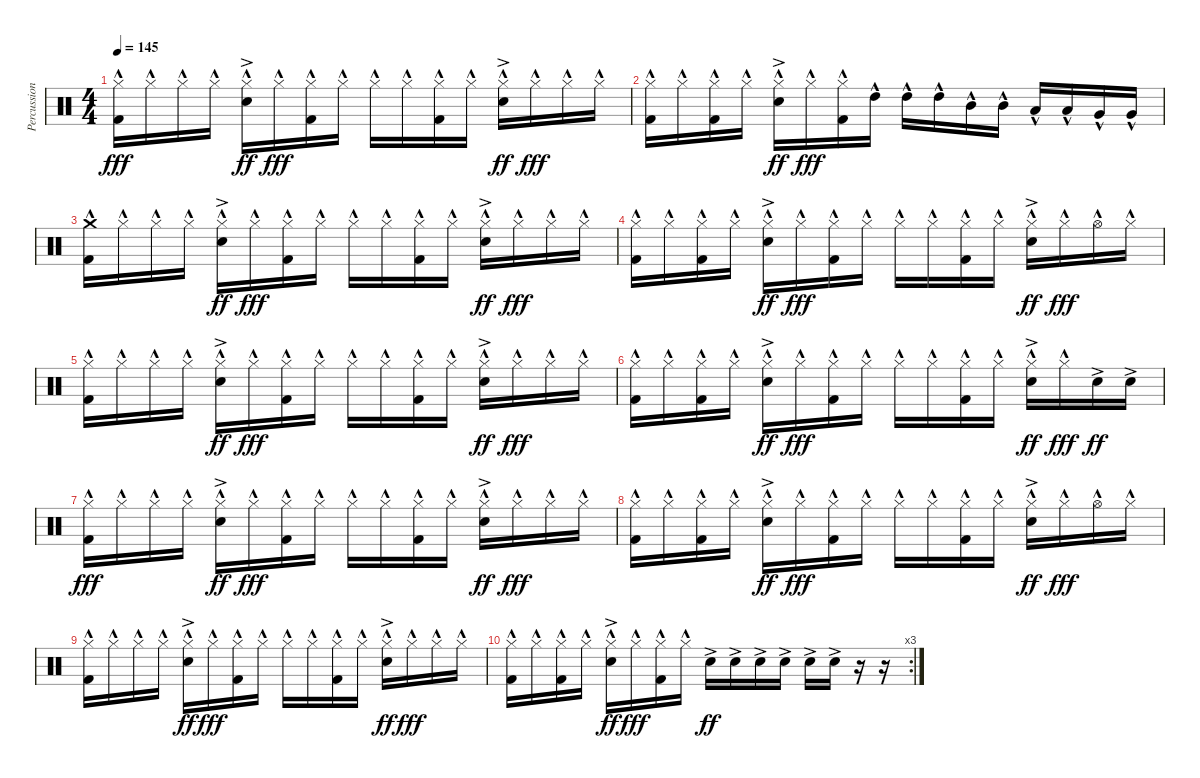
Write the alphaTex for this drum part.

\track ("Percussion" "Percussion") {instrument percussion bank 2}
\staff {score}
\articulation defaults
\ts (4 4)
\tempo 145
\clef neutral
\ks c
("Hi-Hat (closed)"{hac} "Kick (hit) 2"{hac}).16{dy fff} "Hi-Hat (closed)"{hac}.16 "Hi-Hat (closed)"{hac}.16 "Hi-Hat (closed)"{hac}.16 ("Hi-Hat (closed)"{hac} "Snare (hit) 2"{ac}).16{dy ff} "Hi-Hat (closed)"{hac}.16{dy fff} ("Hi-Hat (closed)"{hac} "Kick (hit) 2"{hac}).16 "Hi-Hat (closed)"{hac}.16 "Hi-Hat (closed)"{hac}.16 "Hi-Hat (closed)"{hac}.16 ("Hi-Hat (closed)"{hac} "Kick (hit) 2"{hac}).16 "Hi-Hat (closed)"{hac}.16 ("Hi-Hat (closed)"{hac} "Snare (hit) 2"{ac}).16{dy ff} "Hi-Hat (closed)"{hac}.16{dy fff} "Hi-Hat (closed)"{hac}.16 "Hi-Hat (closed)"{hac}.16 |
("Hi-Hat (closed)"{hac} "Kick (hit) 2"{hac}).16 "Hi-Hat (closed)"{hac}.16 ("Hi-Hat (closed)"{hac} "Kick (hit) 2"{hac}).16 "Hi-Hat (closed)"{hac}.16 ("Hi-Hat (closed)"{hac} "Snare (hit) 2"{ac}).16{dy ff} "Hi-Hat (closed)"{hac}.16{dy fff} ("Hi-Hat (closed)"{hac} "Kick (hit) 2"{hac}).16 "High Tom (hit)"{hac}.16 "High Tom (hit)"{hac}.16 "High Tom (hit)"{hac}.16 "Mid Tom (hit)"{hac}.16 "Mid Tom (hit)"{hac}.16 "Low Tom (hit)"{hac}.16 "Low Tom (hit)"{hac}.16 "Very Low Tom (hit)"{hac}.16 "Very Low Tom (hit)"{hac}.16 |
("Crash medium (hit)"{hac} "Kick (hit) 2"{hac}).16 "Hi-Hat (closed)"{hac}.16 "Hi-Hat (closed)"{hac}.16 "Hi-Hat (closed)"{hac}.16 ("Hi-Hat (closed)"{hac} "Snare (hit) 2"{ac}).16{dy ff} "Hi-Hat (closed)"{hac}.16{dy fff} ("Hi-Hat (closed)"{hac} "Kick (hit) 2"{hac}).16 "Hi-Hat (closed)"{hac}.16 "Hi-Hat (closed)"{hac}.16 "Hi-Hat (closed)"{hac}.16 ("Hi-Hat (closed)"{hac} "Kick (hit) 2"{hac}).16 "Hi-Hat (closed)"{hac}.16 ("Hi-Hat (closed)"{hac} "Snare (hit) 2"{ac}).16{dy ff} "Hi-Hat (closed)"{hac}.16{dy fff} "Hi-Hat (closed)"{hac}.16 "Hi-Hat (closed)"{hac}.16 |
("Hi-Hat (closed)"{hac} "Kick (hit) 2"{hac}).16 "Hi-Hat (closed)"{hac}.16 ("Hi-Hat (closed)"{hac} "Kick (hit) 2"{hac}).16 "Hi-Hat (closed)"{hac}.16 ("Hi-Hat (closed)"{hac} "Snare (hit) 2"{ac}).16{dy ff} "Hi-Hat (closed)"{hac}.16{dy fff} ("Hi-Hat (closed)"{hac} "Kick (hit) 2"{hac}).16 "Hi-Hat (closed)"{hac}.16 "Hi-Hat (closed)"{hac}.16 "Hi-Hat (closed)"{hac}.16 ("Hi-Hat (closed)"{hac} "Kick (hit) 2"{hac}).16 "Hi-Hat (closed)"{hac}.16 ("Hi-Hat (closed)"{hac} "Snare (hit) 2"{ac}).16{dy ff} "Hi-Hat (closed)"{hac}.16{dy fff} "Hi-Hat (open)"{hac}.16 "Hi-Hat (closed)"{hac}.16 |
("Hi-Hat (closed)"{hac} "Kick (hit) 2"{hac}).16 "Hi-Hat (closed)"{hac}.16 "Hi-Hat (closed)"{hac}.16 "Hi-Hat (closed)"{hac}.16 ("Hi-Hat (closed)"{hac} "Snare (hit) 2"{ac}).16{dy ff} "Hi-Hat (closed)"{hac}.16{dy fff} ("Hi-Hat (closed)"{hac} "Kick (hit) 2"{hac}).16 "Hi-Hat (closed)"{hac}.16 "Hi-Hat (closed)"{hac}.16 "Hi-Hat (closed)"{hac}.16 ("Hi-Hat (closed)"{hac} "Kick (hit) 2"{hac}).16 "Hi-Hat (closed)"{hac}.16 ("Hi-Hat (closed)"{hac} "Snare (hit) 2"{ac}).16{dy ff} "Hi-Hat (closed)"{hac}.16{dy fff} "Hi-Hat (closed)"{hac}.16 "Hi-Hat (closed)"{hac}.16 |
("Hi-Hat (closed)"{hac} "Kick (hit) 2"{hac}).16 "Hi-Hat (closed)"{hac}.16 ("Hi-Hat (closed)"{hac} "Kick (hit) 2"{hac}).16 "Hi-Hat (closed)"{hac}.16 ("Hi-Hat (closed)"{hac} "Snare (hit) 2"{ac}).16{dy ff} "Hi-Hat (closed)"{hac}.16{dy fff} ("Hi-Hat (closed)"{hac} "Kick (hit) 2"{hac}).16 "Hi-Hat (closed)"{hac}.16 "Hi-Hat (closed)"{hac}.16 "Hi-Hat (closed)"{hac}.16 ("Hi-Hat (closed)"{hac} "Kick (hit) 2"{hac}).16 "Hi-Hat (closed)"{hac}.16 ("Hi-Hat (closed)"{hac} "Snare (hit) 2"{ac}).16{dy ff} "Hi-Hat (closed)"{hac}.16{dy fff} "Snare (hit) 2"{ac}.16{dy ff} "Snare (hit) 2"{ac}.16 |
("Hi-Hat (closed)"{hac} "Kick (hit) 2"{hac}).16{dy fff} "Hi-Hat (closed)"{hac}.16 "Hi-Hat (closed)"{hac}.16 "Hi-Hat (closed)"{hac}.16 ("Hi-Hat (closed)"{hac} "Snare (hit) 2"{ac}).16{dy ff} "Hi-Hat (closed)"{hac}.16{dy fff} ("Hi-Hat (closed)"{hac} "Kick (hit) 2"{hac}).16 "Hi-Hat (closed)"{hac}.16 "Hi-Hat (closed)"{hac}.16 "Hi-Hat (closed)"{hac}.16 ("Hi-Hat (closed)"{hac} "Kick (hit) 2"{hac}).16 "Hi-Hat (closed)"{hac}.16 ("Hi-Hat (closed)"{hac} "Snare (hit) 2"{ac}).16{dy ff} "Hi-Hat (closed)"{hac}.16{dy fff} "Hi-Hat (closed)"{hac}.16 "Hi-Hat (closed)"{hac}.16 |
("Hi-Hat (closed)"{hac} "Kick (hit) 2"{hac}).16 "Hi-Hat (closed)"{hac}.16 ("Hi-Hat (closed)"{hac} "Kick (hit) 2"{hac}).16 "Hi-Hat (closed)"{hac}.16 ("Hi-Hat (closed)"{hac} "Snare (hit) 2"{ac}).16{dy ff} "Hi-Hat (closed)"{hac}.16{dy fff} ("Hi-Hat (closed)"{hac} "Kick (hit) 2"{hac}).16 "Hi-Hat (closed)"{hac}.16 "Hi-Hat (closed)"{hac}.16 "Hi-Hat (closed)"{hac}.16 ("Hi-Hat (closed)"{hac} "Kick (hit) 2"{hac}).16 "Hi-Hat (closed)"{hac}.16 ("Hi-Hat (closed)"{hac} "Snare (hit) 2"{ac}).16{dy ff} "Hi-Hat (closed)"{hac}.16{dy fff} "Hi-Hat (open)"{hac}.16 "Hi-Hat (closed)"{hac}.16 |
("Hi-Hat (closed)"{hac} "Kick (hit) 2"{hac}).16 "Hi-Hat (closed)"{hac}.16 "Hi-Hat (closed)"{hac}.16 "Hi-Hat (closed)"{hac}.16 ("Hi-Hat (closed)"{hac} "Snare (hit) 2"{ac}).16{dy ff} "Hi-Hat (closed)"{hac}.16{dy fff} ("Hi-Hat (closed)"{hac} "Kick (hit) 2"{hac}).16 "Hi-Hat (closed)"{hac}.16 "Hi-Hat (closed)"{hac}.16 "Hi-Hat (closed)"{hac}.16 ("Hi-Hat (closed)"{hac} "Kick (hit) 2"{hac}).16 "Hi-Hat (closed)"{hac}.16 ("Hi-Hat (closed)"{hac} "Snare (hit) 2"{ac}).16{dy ff} "Hi-Hat (closed)"{hac}.16{dy fff} "Hi-Hat (closed)"{hac}.16 "Hi-Hat (closed)"{hac}.16 |
\rc 3
("Hi-Hat (closed)"{hac} "Kick (hit) 2"{hac}).16 "Hi-Hat (closed)"{hac}.16 ("Hi-Hat (closed)"{hac} "Kick (hit) 2"{hac}).16 "Hi-Hat (closed)"{hac}.16 ("Hi-Hat (closed)"{hac} "Snare (hit) 2"{ac}).16{dy ff} "Hi-Hat (closed)"{hac}.16{dy fff} ("Hi-Hat (closed)"{hac} "Kick (hit) 2"{hac}).16 "Hi-Hat (closed)"{hac}.16 "Snare (hit) 2"{ac}.16{dy ff} "Snare (hit) 2"{ac}.16 "Snare (hit) 2"{ac}.16 "Snare (hit) 2"{ac}.16 "Snare (hit) 2"{ac}.16 "Snare (hit) 2"{ac}.16 r.16 r.16
